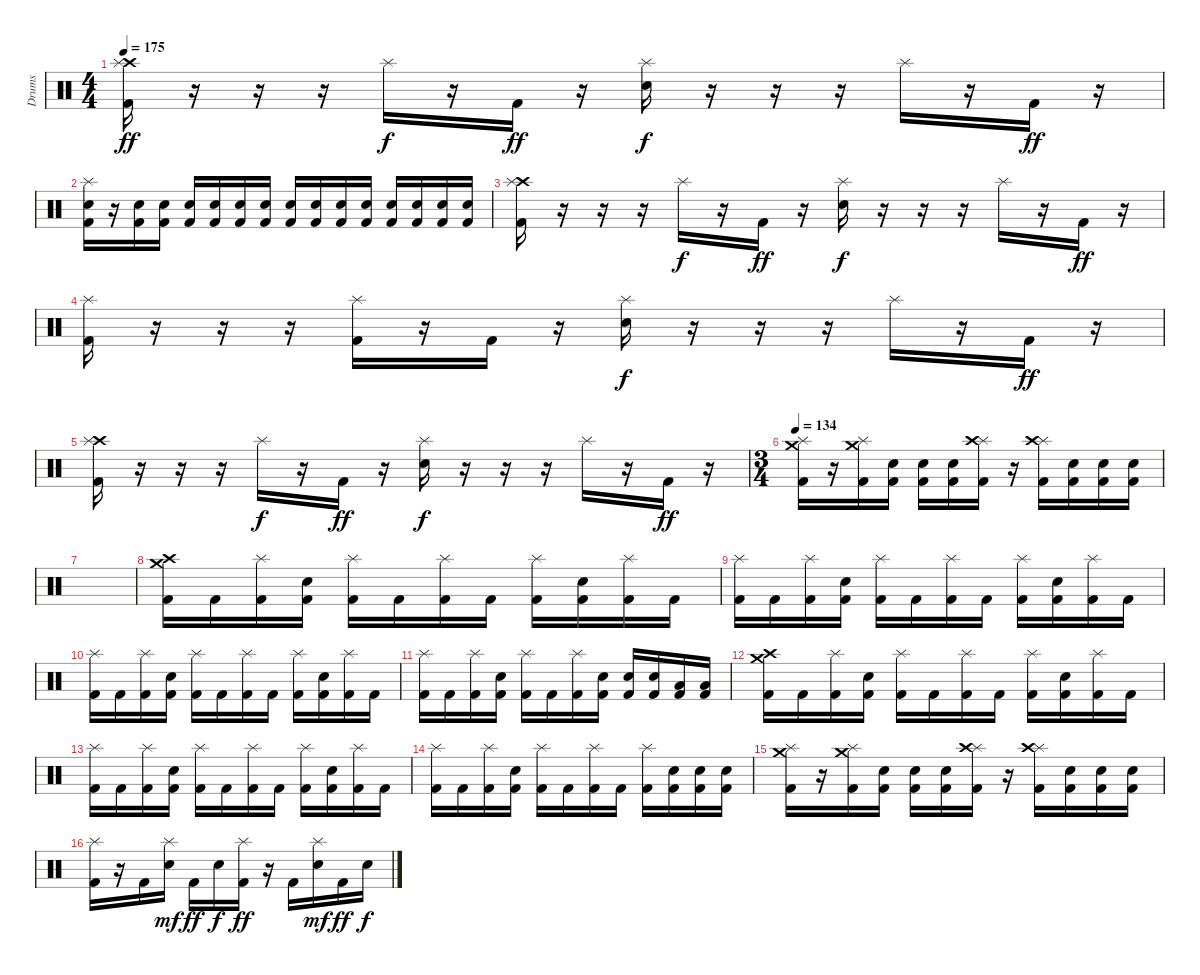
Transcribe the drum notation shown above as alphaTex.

\track ("Drums" "Drums") {instrument percussion}
\staff {score}
\articulation defaults
\ts (4 4)
\tempo 175
\clef neutral
\ks c
("Crash high (hit)" "Splash (hit)" "Kick (hit) 2").16{dy ff} r.16 r.16 r.16 "Splash (hit)".16{dy f} r.16 "Kick (hit) 2".16{dy ff} r.16 ("Splash (hit)" "Snare (hit) 2").16{dy f} r.16 r.16 r.16 "Splash (hit)".16 r.16 "Kick (hit) 2".16{dy ff} r.16 |
("Splash (hit)" "Snare (hit) 2" "Kick (hit) 2").16 r.16 ("Snare (hit) 2" "Kick (hit) 2").16 ("Snare (hit) 2" "Kick (hit) 2").16 ("Snare (hit) 2" "Kick (hit) 2").16 ("Snare (hit) 2" "Kick (hit) 2").16 ("Snare (hit) 2" "Kick (hit) 2").16 ("Snare (hit) 2" "Kick (hit) 2").16 ("Snare (hit) 2" "Kick (hit) 2").16 ("Snare (hit) 2" "Kick (hit) 2").16 ("Snare (hit) 2" "Kick (hit) 2").16 ("Snare (hit) 2" "Kick (hit) 2").16 ("Snare (hit) 2" "Kick (hit) 2").16 ("Snare (hit) 2" "Kick (hit) 2").16 ("Snare (hit) 2" "Kick (hit) 2").16 ("Snare (hit) 2" "Kick (hit) 2").16 |
("Crash high (hit)" "Splash (hit)" "Kick (hit) 2").16 r.16 r.16 r.16 "Splash (hit)".16{dy f} r.16 "Kick (hit) 2".16{dy ff} r.16 ("Splash (hit)" "Snare (hit) 2").16{dy f} r.16 r.16 r.16 "Splash (hit)".16 r.16 "Kick (hit) 2".16{dy ff} r.16 |
("Splash (hit)" "Kick (hit) 2").16 r.16 r.16 r.16 ("Splash (hit)" "Kick (hit) 2").16 r.16 "Kick (hit) 2".16 r.16 ("Splash (hit)" "Snare (hit) 2").16{dy f} r.16 r.16 r.16 "Splash (hit)".16 r.16 "Kick (hit) 2".16{dy ff} r.16 |
("Crash high (hit)" "Splash (hit)" "Kick (hit) 2").16 r.16 r.16 r.16 "Splash (hit)".16{dy f} r.16 "Kick (hit) 2".16{dy ff} r.16 ("Splash (hit)" "Snare (hit) 2").16{dy f} r.16 r.16 r.16 "Splash (hit)".16 r.16 "Kick (hit) 2".16{dy ff} r.16 |
\ts (3 4)
\tempo 134
("Splash (hit)" "Crash medium (hit)" "Kick (hit) 2").16 r.16 ("Splash (hit)" "Crash medium (hit)" "Kick (hit) 2").16 ("Snare (hit) 2" "Kick (hit) 2").16 ("Snare (hit) 2" "Kick (hit) 2").16 ("Snare (hit) 2" "Kick (hit) 2").16 ("Splash (hit)" "Crash high (hit)" "Kick (hit) 2").16 r.16 ("Splash (hit)" "Crash high (hit)" "Kick (hit) 2").16 ("Snare (hit) 2" "Kick (hit) 2").16 ("Snare (hit) 2" "Kick (hit) 2").16 ("Snare (hit) 2" "Kick (hit) 2").16 |
|
("Crash medium (hit)" "Crash high (hit)" "Kick (hit) 2").16 "Kick (hit) 2".16 ("Splash (hit)" "Kick (hit) 2").16 ("Snare (hit) 2" "Kick (hit) 2").16 ("Splash (hit)" "Kick (hit) 2").16 "Kick (hit) 2".16 ("Splash (hit)" "Kick (hit) 2").16 "Kick (hit) 2".16 ("Splash (hit)" "Kick (hit) 2").16 ("Snare (hit) 2" "Kick (hit) 2").16 ("Splash (hit)" "Kick (hit) 2").16 "Kick (hit) 2".16 |
("Splash (hit)" "Kick (hit) 2").16 "Kick (hit) 2".16 ("Splash (hit)" "Kick (hit) 2").16 ("Snare (hit) 2" "Kick (hit) 2").16 ("Splash (hit)" "Kick (hit) 2").16 "Kick (hit) 2".16 ("Splash (hit)" "Kick (hit) 2").16 "Kick (hit) 2".16 ("Splash (hit)" "Kick (hit) 2").16 ("Snare (hit) 2" "Kick (hit) 2").16 ("Splash (hit)" "Kick (hit) 2").16 "Kick (hit) 2".16 |
("Splash (hit)" "Kick (hit) 2").16 "Kick (hit) 2".16 ("Splash (hit)" "Kick (hit) 2").16 ("Snare (hit) 2" "Kick (hit) 2").16 ("Splash (hit)" "Kick (hit) 2").16 "Kick (hit) 2".16 ("Splash (hit)" "Kick (hit) 2").16 "Kick (hit) 2".16 ("Splash (hit)" "Kick (hit) 2").16 ("Snare (hit) 2" "Kick (hit) 2").16 ("Splash (hit)" "Kick (hit) 2").16 "Kick (hit) 2".16 |
("Splash (hit)" "Kick (hit) 2").16 "Kick (hit) 2".16 ("Splash (hit)" "Kick (hit) 2").16 ("Snare (hit) 2" "Kick (hit) 2").16 ("Splash (hit)" "Kick (hit) 2").16 "Kick (hit) 2".16 ("Splash (hit)" "Kick (hit) 2").16 ("Snare (hit) 2" "Kick (hit) 2").16 ("Snare (hit) 2" "Kick (hit) 2").16 ("Snare (hit) 2" "Kick (hit) 2").16 ("Low Tom (hit)" "Kick (hit) 2").16 ("Low Tom (hit)" "Kick (hit) 2").16 |
("Crash medium (hit)" "Crash high (hit)" "Kick (hit) 2").16 "Kick (hit) 2".16 ("Splash (hit)" "Kick (hit) 2").16 ("Snare (hit) 2" "Kick (hit) 2").16 ("Splash (hit)" "Kick (hit) 2").16 "Kick (hit) 2".16 ("Splash (hit)" "Kick (hit) 2").16 "Kick (hit) 2".16 ("Splash (hit)" "Kick (hit) 2").16 ("Snare (hit) 2" "Kick (hit) 2").16 ("Splash (hit)" "Kick (hit) 2").16 "Kick (hit) 2".16 |
("Splash (hit)" "Kick (hit) 2").16 "Kick (hit) 2".16 ("Splash (hit)" "Kick (hit) 2").16 ("Snare (hit) 2" "Kick (hit) 2").16 ("Splash (hit)" "Kick (hit) 2").16 "Kick (hit) 2".16 ("Splash (hit)" "Kick (hit) 2").16 "Kick (hit) 2".16 ("Splash (hit)" "Kick (hit) 2").16 ("Snare (hit) 2" "Kick (hit) 2").16 ("Splash (hit)" "Kick (hit) 2").16 "Kick (hit) 2".16 |
("Splash (hit)" "Kick (hit) 2").16 "Kick (hit) 2".16 ("Splash (hit)" "Kick (hit) 2").16 ("Snare (hit) 2" "Kick (hit) 2").16 ("Splash (hit)" "Kick (hit) 2").16 "Kick (hit) 2".16 ("Splash (hit)" "Kick (hit) 2").16 "Kick (hit) 2".16 ("Splash (hit)" "Kick (hit) 2").16 ("Snare (hit) 2" "Kick (hit) 2").16 ("Snare (hit) 2" "Kick (hit) 2").16 ("Snare (hit) 2" "Kick (hit) 2").16 |
("Splash (hit)" "Crash medium (hit)" "Kick (hit) 2").16 r.16 ("Splash (hit)" "Crash medium (hit)" "Kick (hit) 2").16 ("Snare (hit) 2" "Kick (hit) 2").16 ("Snare (hit) 2" "Kick (hit) 2").16 ("Snare (hit) 2" "Kick (hit) 2").16 ("Splash (hit)" "Crash high (hit)" "Kick (hit) 2").16 r.16 ("Splash (hit)" "Crash high (hit)" "Kick (hit) 2").16 ("Snare (hit) 2" "Kick (hit) 2").16 ("Snare (hit) 2" "Kick (hit) 2").16 ("Snare (hit) 2" "Kick (hit) 2").16 |
("Splash (hit)" "Kick (hit) 2").16 r.16 "Kick (hit) 2".16 ("Splash (hit)" "Snare (hit) 2").16{dy mf} "Kick (hit) 2".16{dy ff} "Snare (hit) 2".16{dy f} ("Splash (hit)" "Kick (hit) 2").16{dy ff} r.16 "Kick (hit) 2".16 ("Splash (hit)" "Snare (hit) 2").16{dy mf} "Kick (hit) 2".16{dy ff} "Snare (hit) 2".16{dy f}
